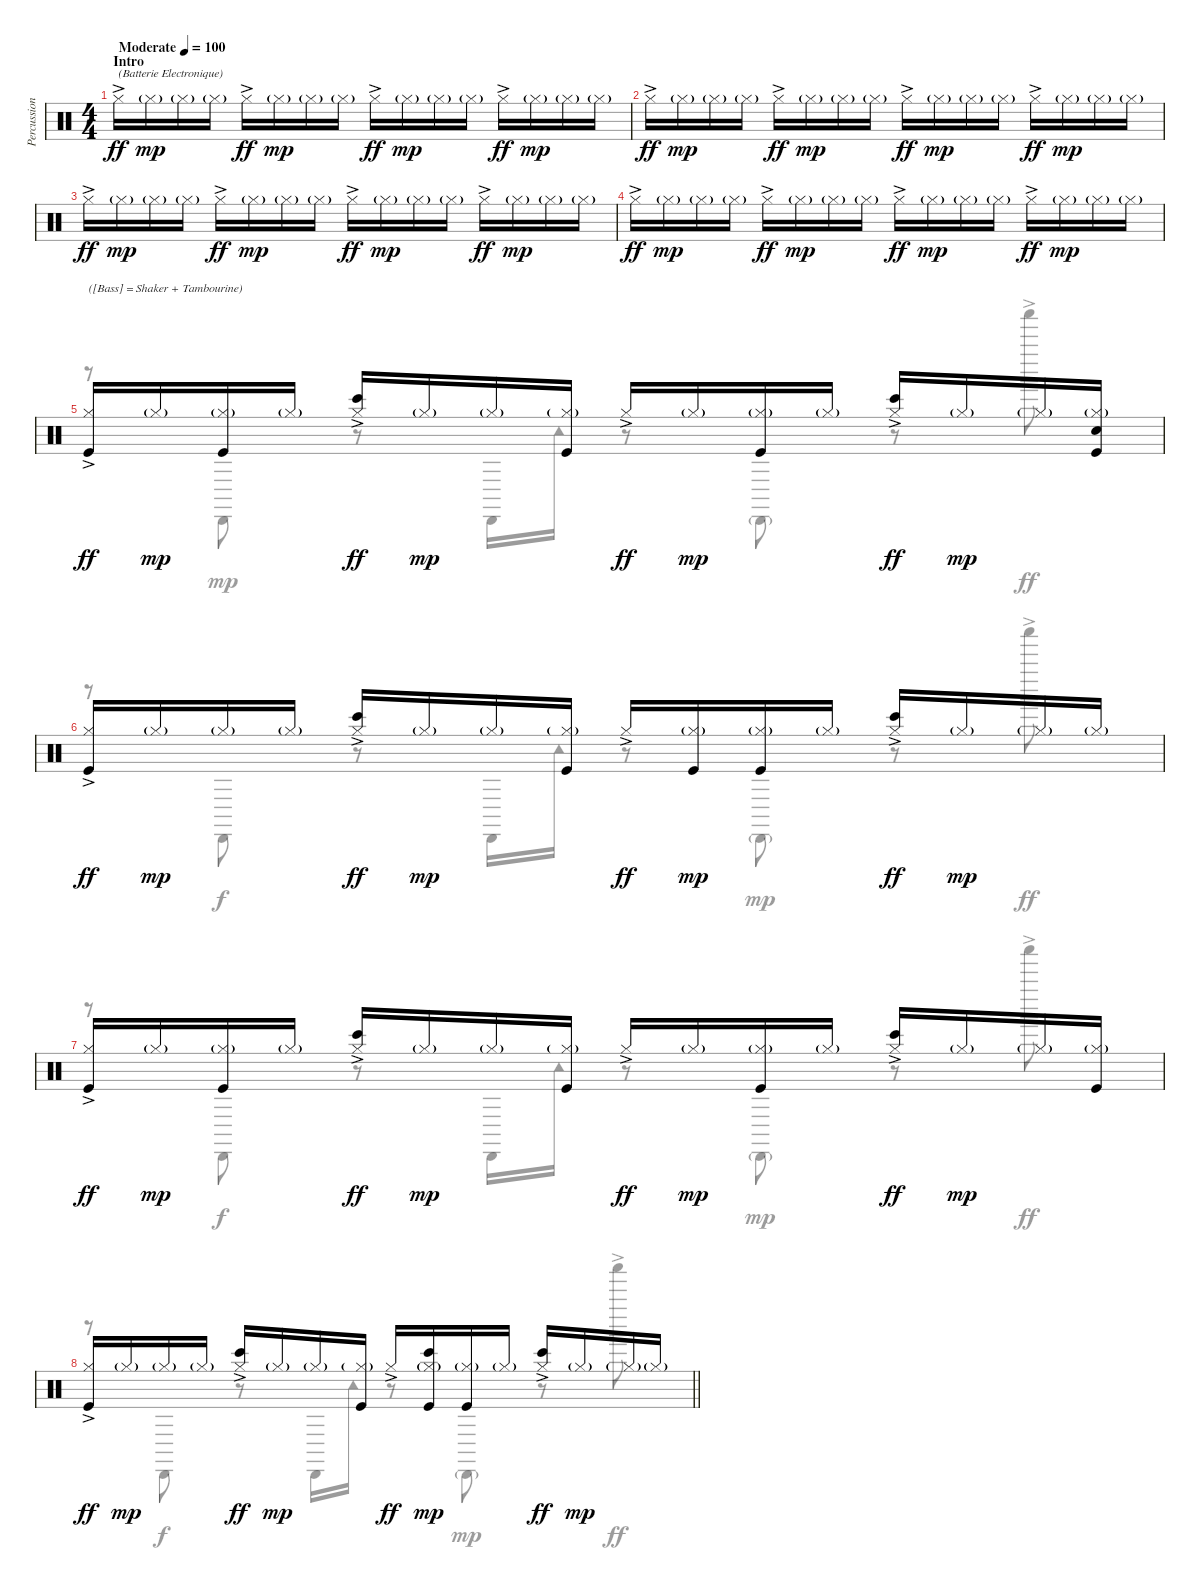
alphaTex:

\track ("Percussions" "Percussion") {instrument percussion}
\staff {score}
\articulation defaults
\voice
\ts (4 4)
\section ("" "Intro")
\tempo (100 "Moderate")
\clef neutral
\ks c "Hi-Hat (closed)"{ac}.16{txt "(Batterie Electronique)" dy ff} "Hi-Hat (closed)"{g}.16{dy mp} "Hi-Hat (closed)"{g}.16 "Hi-Hat (closed)"{g}.16 "Hi-Hat (closed)"{ac}.16{dy ff} "Hi-Hat (closed)"{g}.16{dy mp} "Hi-Hat (closed)"{g}.16 "Hi-Hat (closed)"{g}.16 "Hi-Hat (closed)"{ac}.16{dy ff} "Hi-Hat (closed)"{g}.16{dy mp} "Hi-Hat (closed)"{g}.16 "Hi-Hat (closed)"{g}.16 "Hi-Hat (closed)"{ac}.16{dy ff} "Hi-Hat (closed)"{g}.16{dy mp} "Hi-Hat (closed)"{g}.16 "Hi-Hat (closed)"{g}.16
|
"Hi-Hat (closed)"{ac}.16{dy ff} "Hi-Hat (closed)"{g}.16{dy mp} "Hi-Hat (closed)"{g}.16 "Hi-Hat (closed)"{g}.16 "Hi-Hat (closed)"{ac}.16{dy ff} "Hi-Hat (closed)"{g}.16{dy mp} "Hi-Hat (closed)"{g}.16 "Hi-Hat (closed)"{g}.16 "Hi-Hat (closed)"{ac}.16{dy ff} "Hi-Hat (closed)"{g}.16{dy mp} "Hi-Hat (closed)"{g}.16 "Hi-Hat (closed)"{g}.16 "Hi-Hat (closed)"{ac}.16{dy ff} "Hi-Hat (closed)"{g}.16{dy mp} "Hi-Hat (closed)"{g}.16 "Hi-Hat (closed)"{g}.16 |
"Hi-Hat (closed)"{ac}.16{dy ff} "Hi-Hat (closed)"{g}.16{dy mp} "Hi-Hat (closed)"{g}.16 "Hi-Hat (closed)"{g}.16 "Hi-Hat (closed)"{ac}.16{dy ff} "Hi-Hat (closed)"{g}.16{dy mp} "Hi-Hat (closed)"{g}.16 "Hi-Hat (closed)"{g}.16 "Hi-Hat (closed)"{ac}.16{dy ff} "Hi-Hat (closed)"{g}.16{dy mp} "Hi-Hat (closed)"{g}.16 "Hi-Hat (closed)"{g}.16 "Hi-Hat (closed)"{ac}.16{dy ff} "Hi-Hat (closed)"{g}.16{dy mp} "Hi-Hat (closed)"{g}.16 "Hi-Hat (closed)"{g}.16 |
"Hi-Hat (closed)"{ac}.16{dy ff} "Hi-Hat (closed)"{g}.16{dy mp} "Hi-Hat (closed)"{g}.16 "Hi-Hat (closed)"{g}.16 "Hi-Hat (closed)"{ac}.16{dy ff} "Hi-Hat (closed)"{g}.16{dy mp} "Hi-Hat (closed)"{g}.16 "Hi-Hat (closed)"{g}.16 "Hi-Hat (closed)"{ac}.16{dy ff} "Hi-Hat (closed)"{g}.16{dy mp} "Hi-Hat (closed)"{g}.16 "Hi-Hat (closed)"{g}.16 "Hi-Hat (closed)"{ac}.16{dy ff} "Hi-Hat (closed)"{g}.16{dy mp} "Hi-Hat (closed)"{g}.16 "Hi-Hat (closed)"{g}.16 |
("Kick (hit)" "Hi-Hat (closed)"{ac}).16{txt "([Bass] = Shaker + Tambourine)" dy ff} "Hi-Hat (closed)"{g}.16{dy mp} ("Kick (hit)" "Hi-Hat (closed)"{g}).16 "Hi-Hat (closed)"{g}.16 ("Bongo High (hit)" "Hi-Hat (closed)"{ac}).16{dy ff} "Hi-Hat (closed)"{g}.16{dy mp} "Hi-Hat (closed)"{g}.16 ("Kick (hit)" "Hi-Hat (closed)"{g}).16 "Hi-Hat (closed)"{ac}.16{dy ff} "Hi-Hat (closed)"{g}.16{dy mp} ("Kick (hit)" "Hi-Hat (closed)"{g}).16 "Hi-Hat (closed)"{g}.16 ("Bongo High (hit)" "Hi-Hat (closed)"{ac}).16{dy ff} "Hi-Hat (closed)"{g}.16{dy mp} "Hi-Hat (closed)"{g}.16 ("Kick (hit)" "Hi-Hat (closed)"{g} "Snare (hit)").16 |
("Kick (hit)" "Hi-Hat (closed)"{ac}).16{dy ff} "Hi-Hat (closed)"{g}.16{dy mp} "Hi-Hat (closed)"{g}.16 "Hi-Hat (closed)"{g}.16 ("Bongo High (hit)" "Hi-Hat (closed)"{ac}).16{dy ff} "Hi-Hat (closed)"{g}.16{dy mp} "Hi-Hat (closed)"{g}.16 ("Kick (hit)" "Hi-Hat (closed)"{g}).16 "Hi-Hat (closed)"{ac}.16{dy ff} ("Kick (hit)" "Hi-Hat (closed)"{g}).16{dy mp} ("Kick (hit)" "Hi-Hat (closed)"{g}).16 "Hi-Hat (closed)"{g}.16 ("Bongo High (hit)" "Hi-Hat (closed)"{ac}).16{dy ff} "Hi-Hat (closed)"{g}.16{dy mp} "Hi-Hat (closed)"{g}.16 "Hi-Hat (closed)"{g}.16 |
("Kick (hit)" "Hi-Hat (closed)"{ac}).16{dy ff} "Hi-Hat (closed)"{g}.16{dy mp} ("Kick (hit)" "Hi-Hat (closed)"{g}).16 "Hi-Hat (closed)"{g}.16 ("Bongo High (hit)" "Hi-Hat (closed)"{ac}).16{dy ff} "Hi-Hat (closed)"{g}.16{dy mp} "Hi-Hat (closed)"{g}.16 ("Kick (hit)" "Hi-Hat (closed)"{g}).16 "Hi-Hat (closed)"{ac}.16{dy ff} "Hi-Hat (closed)"{g}.16{dy mp} ("Kick (hit)" "Hi-Hat (closed)"{g}).16 "Hi-Hat (closed)"{g}.16 ("Bongo High (hit)" "Hi-Hat (closed)"{ac}).16{dy ff} "Hi-Hat (closed)"{g}.16{dy mp} "Hi-Hat (closed)"{g}.16 ("Kick (hit)" "Hi-Hat (closed)"{g}).16 |
\barLineRight lightlight
("Kick (hit)" "Hi-Hat (closed)"{ac}).16{dy ff} "Hi-Hat (closed)"{g}.16{dy mp} "Hi-Hat (closed)"{g}.16 "Hi-Hat (closed)"{g}.16 ("Bongo High (hit)" "Hi-Hat (closed)"{ac}).16{dy ff} "Hi-Hat (closed)"{g}.16{dy mp} "Hi-Hat (closed)"{g}.16 ("Kick (hit)" "Hi-Hat (closed)"{g}).16 "Hi-Hat (closed)"{ac}.16{dy ff} ("Kick (hit)" "Bongo High (hit)" "Hi-Hat (closed)"{g}).16{dy mp} ("Kick (hit)" "Hi-Hat (closed)"{g}).16 "Hi-Hat (closed)"{g}.16 ("Bongo High (hit)" "Hi-Hat (closed)"{ac}).16{dy ff} "Hi-Hat (closed)"{g}.16{dy mp} "Hi-Hat (closed)"{g}.16 "Hi-Hat (closed)"{g}.16
\voice
\clef neutral
\ottava regular
\simile none
\ks c
|
|
|
|
r.8 "Cabasa (hit)".8 r.8 "Cabasa (hit)".16 "Tambourine (hit)".16 r.8 "Cabasa (hit)"{g}.8{dy mp} r.8 "Shaker (hit)"{ac}.8{dy ff} |
r.8 "Cabasa (hit)".8{dy f} r.8 "Cabasa (hit)".16 "Tambourine (hit)".16 r.8 "Cabasa (hit)"{g}.8{dy mp} r.8 "Shaker (hit)"{ac}.8{dy ff} |
r.8 "Cabasa (hit)".8{dy f} r.8 "Cabasa (hit)".16 "Tambourine (hit)".16 r.8 "Cabasa (hit)"{g}.8{dy mp} r.8 "Shaker (hit)"{ac}.8{dy ff} |
\barLineRight lightlight
r.8 "Cabasa (hit)".8{dy f} r.8 "Cabasa (hit)".16 "Tambourine (hit)".16 r.8 "Cabasa (hit)"{g}.8{dy mp} r.8 "Shaker (hit)"{ac}.8{dy ff}
